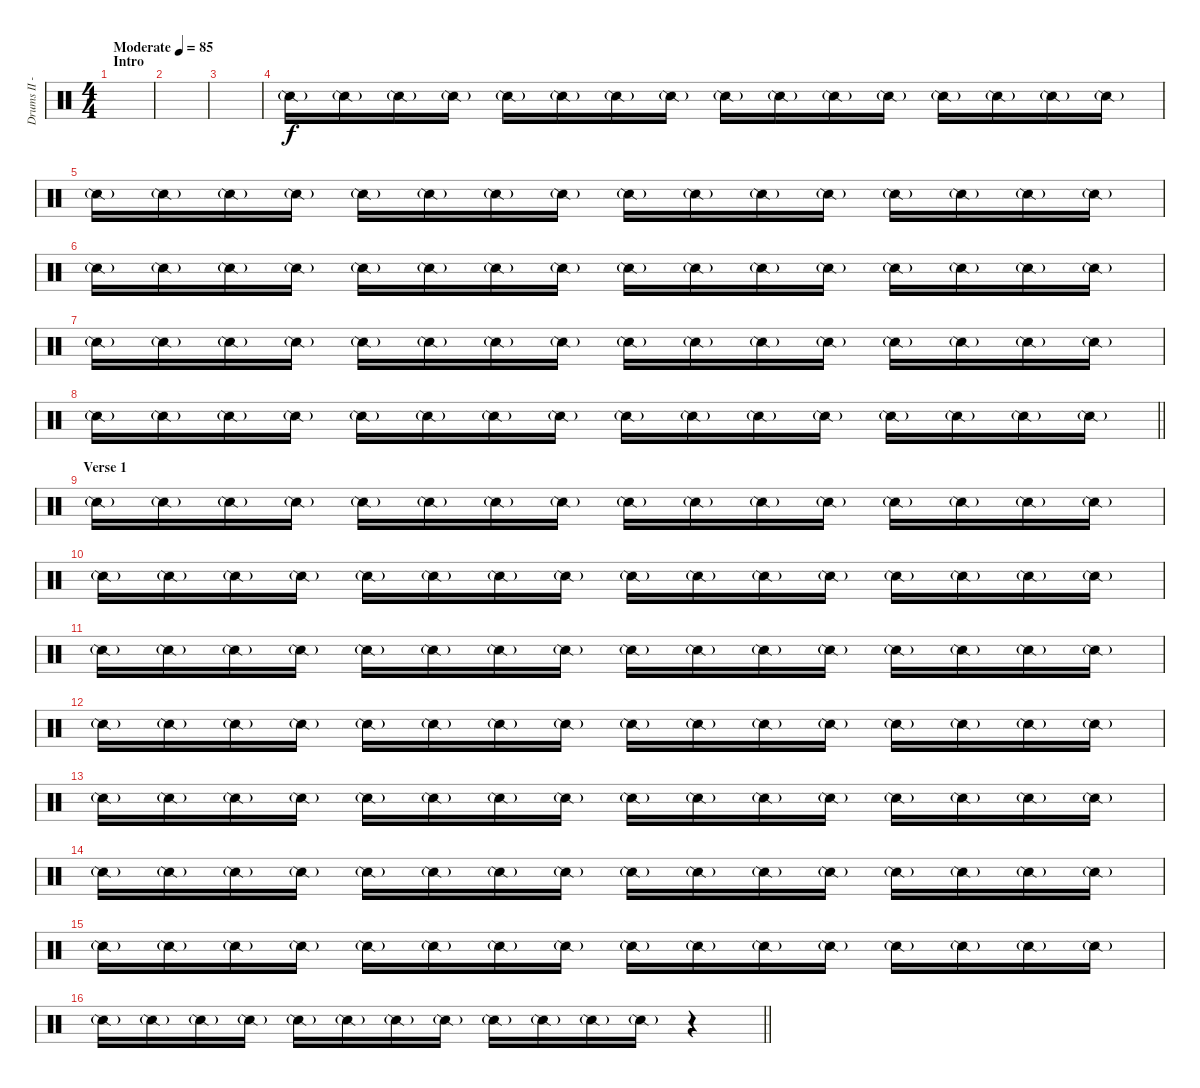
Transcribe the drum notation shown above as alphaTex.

\track ("Drums II - Adam" "Drums II -") {instrument percussion}
\staff {score}
\articulation defaults
\ts (4 4)
\section ("" "Intro")
\tempo (85 "Moderate")
\clef neutral
\ks c
|
|
|
"Snare (side stick) 2"{g}.16 "Snare (side stick) 2"{g}.16 "Snare (side stick) 2"{g}.16 "Snare (side stick) 2"{g}.16 "Snare (side stick) 2"{g}.16 "Snare (side stick) 2"{g}.16 "Snare (side stick) 2"{g}.16 "Snare (side stick) 2"{g}.16 "Snare (side stick) 2"{g}.16 "Snare (side stick) 2"{g}.16 "Snare (side stick) 2"{g}.16 "Snare (side stick) 2"{g}.16 "Snare (side stick) 2"{g}.16 "Snare (side stick) 2"{g}.16 "Snare (side stick) 2"{g}.16 "Snare (side stick) 2"{g}.16 |
"Snare (side stick) 2"{g}.16 "Snare (side stick) 2"{g}.16 "Snare (side stick) 2"{g}.16 "Snare (side stick) 2"{g}.16 "Snare (side stick) 2"{g}.16 "Snare (side stick) 2"{g}.16 "Snare (side stick) 2"{g}.16 "Snare (side stick) 2"{g}.16 "Snare (side stick) 2"{g}.16 "Snare (side stick) 2"{g}.16 "Snare (side stick) 2"{g}.16 "Snare (side stick) 2"{g}.16 "Snare (side stick) 2"{g}.16 "Snare (side stick) 2"{g}.16 "Snare (side stick) 2"{g}.16 "Snare (side stick) 2"{g}.16 |
"Snare (side stick) 2"{g}.16 "Snare (side stick) 2"{g}.16 "Snare (side stick) 2"{g}.16 "Snare (side stick) 2"{g}.16 "Snare (side stick) 2"{g}.16 "Snare (side stick) 2"{g}.16 "Snare (side stick) 2"{g}.16 "Snare (side stick) 2"{g}.16 "Snare (side stick) 2"{g}.16 "Snare (side stick) 2"{g}.16 "Snare (side stick) 2"{g}.16 "Snare (side stick) 2"{g}.16 "Snare (side stick) 2"{g}.16 "Snare (side stick) 2"{g}.16 "Snare (side stick) 2"{g}.16 "Snare (side stick) 2"{g}.16 |
"Snare (side stick) 2"{g}.16 "Snare (side stick) 2"{g}.16 "Snare (side stick) 2"{g}.16 "Snare (side stick) 2"{g}.16 "Snare (side stick) 2"{g}.16 "Snare (side stick) 2"{g}.16 "Snare (side stick) 2"{g}.16 "Snare (side stick) 2"{g}.16 "Snare (side stick) 2"{g}.16 "Snare (side stick) 2"{g}.16 "Snare (side stick) 2"{g}.16 "Snare (side stick) 2"{g}.16 "Snare (side stick) 2"{g}.16 "Snare (side stick) 2"{g}.16 "Snare (side stick) 2"{g}.16 "Snare (side stick) 2"{g}.16 |
\barLineRight lightlight "Snare (side stick) 2"{g}.16 "Snare (side stick) 2"{g}.16 "Snare (side stick) 2"{g}.16 "Snare (side stick) 2"{g}.16 "Snare (side stick) 2"{g}.16 "Snare (side stick) 2"{g}.16 "Snare (side stick) 2"{g}.16 "Snare (side stick) 2"{g}.16 "Snare (side stick) 2"{g}.16 "Snare (side stick) 2"{g}.16 "Snare (side stick) 2"{g}.16 "Snare (side stick) 2"{g}.16 "Snare (side stick) 2"{g}.16 "Snare (side stick) 2"{g}.16 "Snare (side stick) 2"{g}.16 "Snare (side stick) 2"{g}.16
|
\section ("" "Verse 1")
"Snare (side stick) 2"{g}.16 "Snare (side stick) 2"{g}.16 "Snare (side stick) 2"{g}.16 "Snare (side stick) 2"{g}.16 "Snare (side stick) 2"{g}.16 "Snare (side stick) 2"{g}.16 "Snare (side stick) 2"{g}.16 "Snare (side stick) 2"{g}.16 "Snare (side stick) 2"{g}.16 "Snare (side stick) 2"{g}.16 "Snare (side stick) 2"{g}.16 "Snare (side stick) 2"{g}.16 "Snare (side stick) 2"{g}.16 "Snare (side stick) 2"{g}.16 "Snare (side stick) 2"{g}.16 "Snare (side stick) 2"{g}.16 |
"Snare (side stick) 2"{g}.16 "Snare (side stick) 2"{g}.16 "Snare (side stick) 2"{g}.16 "Snare (side stick) 2"{g}.16 "Snare (side stick) 2"{g}.16 "Snare (side stick) 2"{g}.16 "Snare (side stick) 2"{g}.16 "Snare (side stick) 2"{g}.16 "Snare (side stick) 2"{g}.16 "Snare (side stick) 2"{g}.16 "Snare (side stick) 2"{g}.16 "Snare (side stick) 2"{g}.16 "Snare (side stick) 2"{g}.16 "Snare (side stick) 2"{g}.16 "Snare (side stick) 2"{g}.16 "Snare (side stick) 2"{g}.16 |
"Snare (side stick) 2"{g}.16 "Snare (side stick) 2"{g}.16 "Snare (side stick) 2"{g}.16 "Snare (side stick) 2"{g}.16 "Snare (side stick) 2"{g}.16 "Snare (side stick) 2"{g}.16 "Snare (side stick) 2"{g}.16 "Snare (side stick) 2"{g}.16 "Snare (side stick) 2"{g}.16 "Snare (side stick) 2"{g}.16 "Snare (side stick) 2"{g}.16 "Snare (side stick) 2"{g}.16 "Snare (side stick) 2"{g}.16 "Snare (side stick) 2"{g}.16 "Snare (side stick) 2"{g}.16 "Snare (side stick) 2"{g}.16 |
"Snare (side stick) 2"{g}.16 "Snare (side stick) 2"{g}.16 "Snare (side stick) 2"{g}.16 "Snare (side stick) 2"{g}.16 "Snare (side stick) 2"{g}.16 "Snare (side stick) 2"{g}.16 "Snare (side stick) 2"{g}.16 "Snare (side stick) 2"{g}.16 "Snare (side stick) 2"{g}.16 "Snare (side stick) 2"{g}.16 "Snare (side stick) 2"{g}.16 "Snare (side stick) 2"{g}.16 "Snare (side stick) 2"{g}.16 "Snare (side stick) 2"{g}.16 "Snare (side stick) 2"{g}.16 "Snare (side stick) 2"{g}.16 |
"Snare (side stick) 2"{g}.16 "Snare (side stick) 2"{g}.16 "Snare (side stick) 2"{g}.16 "Snare (side stick) 2"{g}.16 "Snare (side stick) 2"{g}.16 "Snare (side stick) 2"{g}.16 "Snare (side stick) 2"{g}.16 "Snare (side stick) 2"{g}.16 "Snare (side stick) 2"{g}.16 "Snare (side stick) 2"{g}.16 "Snare (side stick) 2"{g}.16 "Snare (side stick) 2"{g}.16 "Snare (side stick) 2"{g}.16 "Snare (side stick) 2"{g}.16 "Snare (side stick) 2"{g}.16 "Snare (side stick) 2"{g}.16 |
"Snare (side stick) 2"{g}.16 "Snare (side stick) 2"{g}.16 "Snare (side stick) 2"{g}.16 "Snare (side stick) 2"{g}.16 "Snare (side stick) 2"{g}.16 "Snare (side stick) 2"{g}.16 "Snare (side stick) 2"{g}.16 "Snare (side stick) 2"{g}.16 "Snare (side stick) 2"{g}.16 "Snare (side stick) 2"{g}.16 "Snare (side stick) 2"{g}.16 "Snare (side stick) 2"{g}.16 "Snare (side stick) 2"{g}.16 "Snare (side stick) 2"{g}.16 "Snare (side stick) 2"{g}.16 "Snare (side stick) 2"{g}.16 |
"Snare (side stick) 2"{g}.16 "Snare (side stick) 2"{g}.16 "Snare (side stick) 2"{g}.16 "Snare (side stick) 2"{g}.16 "Snare (side stick) 2"{g}.16 "Snare (side stick) 2"{g}.16 "Snare (side stick) 2"{g}.16 "Snare (side stick) 2"{g}.16 "Snare (side stick) 2"{g}.16 "Snare (side stick) 2"{g}.16 "Snare (side stick) 2"{g}.16 "Snare (side stick) 2"{g}.16 "Snare (side stick) 2"{g}.16 "Snare (side stick) 2"{g}.16 "Snare (side stick) 2"{g}.16 "Snare (side stick) 2"{g}.16 |
\barLineRight lightlight "Snare (side stick) 2"{g}.16 "Snare (side stick) 2"{g}.16 "Snare (side stick) 2"{g}.16 "Snare (side stick) 2"{g}.16 "Snare (side stick) 2"{g}.16 "Snare (side stick) 2"{g}.16 "Snare (side stick) 2"{g}.16 "Snare (side stick) 2"{g}.16 "Snare (side stick) 2"{g}.16 "Snare (side stick) 2"{g}.16 "Snare (side stick) 2"{g}.16 "Snare (side stick) 2"{g}.16
r.4
